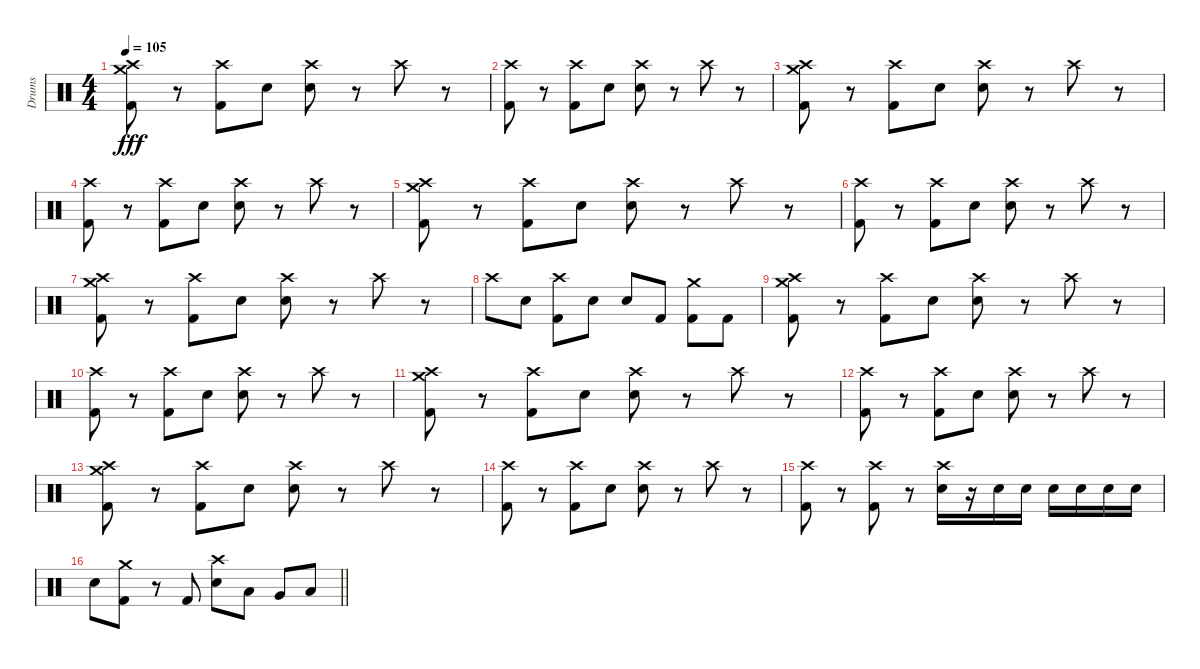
\track ("Drums" "Drums") {instrument percussion}
\staff {score}
\articulation defaults
\ts (4 4)
\section ("" "")
\tempo 105
\clef neutral
\ks c
("Crash medium (hit)" "Crash high (hit)" "Kick (hit) 2").8{dy fff} r.8 ("Crash high (hit)" "Kick (hit) 2").8 "Electric Snare (hit)".8 ("Crash high (hit)" "Electric Snare (hit)").8 r.8 "Crash high (hit)".8 r.8 |
("Crash high (hit)" "Kick (hit) 2").8 r.8 ("Crash high (hit)" "Kick (hit) 2").8 "Electric Snare (hit)".8 ("Crash high (hit)" "Electric Snare (hit)").8 r.8 "Crash high (hit)".8 r.8 |
("Crash medium (hit)" "Crash high (hit)" "Kick (hit) 2").8 r.8 ("Crash high (hit)" "Kick (hit) 2").8 "Electric Snare (hit)".8 ("Crash high (hit)" "Electric Snare (hit)").8 r.8 "Crash high (hit)".8 r.8 |
("Crash high (hit)" "Kick (hit) 2").8 r.8 ("Crash high (hit)" "Kick (hit) 2").8 "Electric Snare (hit)".8 ("Crash high (hit)" "Electric Snare (hit)").8 r.8 "Crash high (hit)".8 r.8 |
("Crash medium (hit)" "Crash high (hit)" "Kick (hit) 2").8 r.8 ("Crash high (hit)" "Kick (hit) 2").8 "Electric Snare (hit)".8 ("Crash high (hit)" "Electric Snare (hit)").8 r.8 "Crash high (hit)".8 r.8 |
("Crash high (hit)" "Kick (hit) 2").8 r.8 ("Crash high (hit)" "Kick (hit) 2").8 "Electric Snare (hit)".8 ("Crash high (hit)" "Electric Snare (hit)").8 r.8 "Crash high (hit)".8 r.8 |
("Crash medium (hit)" "Crash high (hit)" "Kick (hit) 2").8 r.8 ("Crash high (hit)" "Kick (hit) 2").8 "Electric Snare (hit)".8 ("Crash high (hit)" "Electric Snare (hit)").8 r.8 "Crash high (hit)".8 r.8 |
"Crash high (hit)".8 "Electric Snare (hit)".8 ("Crash high (hit)" "Kick (hit) 2").8 "Electric Snare (hit)".8 "Electric Snare (hit)".8 "Kick (hit) 2".8 ("Crash medium (hit)" "Kick (hit) 2").8 "Kick (hit) 2".8 |
("Crash medium (hit)" "Crash high (hit)" "Kick (hit) 2").8 r.8 ("Crash high (hit)" "Kick (hit) 2").8 "Electric Snare (hit)".8 ("Crash high (hit)" "Electric Snare (hit)").8 r.8 "Crash high (hit)".8 r.8 |
("Crash high (hit)" "Kick (hit) 2").8 r.8 ("Crash high (hit)" "Kick (hit) 2").8 "Electric Snare (hit)".8 ("Crash high (hit)" "Electric Snare (hit)").8 r.8 "Crash high (hit)".8 r.8 |
("Crash medium (hit)" "Crash high (hit)" "Kick (hit) 2").8 r.8 ("Crash high (hit)" "Kick (hit) 2").8 "Electric Snare (hit)".8 ("Crash high (hit)" "Electric Snare (hit)").8 r.8 "Crash high (hit)".8 r.8 |
("Crash high (hit)" "Kick (hit) 2").8 r.8 ("Crash high (hit)" "Kick (hit) 2").8 "Electric Snare (hit)".8 ("Crash high (hit)" "Electric Snare (hit)").8 r.8 "Crash high (hit)".8 r.8 |
("Crash medium (hit)" "Crash high (hit)" "Kick (hit) 2").8 r.8 ("Crash high (hit)" "Kick (hit) 2").8 "Electric Snare (hit)".8 ("Crash high (hit)" "Electric Snare (hit)").8 r.8 "Crash high (hit)".8 r.8 |
("Crash high (hit)" "Kick (hit) 2").8 r.8 ("Crash high (hit)" "Kick (hit) 2").8 "Electric Snare (hit)".8 ("Crash high (hit)" "Electric Snare (hit)").8 r.8 "Crash high (hit)".8 r.8 |
("Crash high (hit)" "Kick (hit) 2").8 r.8 ("Crash high (hit)" "Kick (hit) 2").8 r.8 ("Crash high (hit)" "Electric Snare (hit)").16 r.16 "Electric Snare (hit)".16 "Electric Snare (hit)".16 "Electric Snare (hit)".16 "Electric Snare (hit)".16 "Electric Snare (hit)".16 "Electric Snare (hit)".16 |
\barLineRight lightlight "Electric Snare (hit)".8
("Crash medium (hit)" "Kick (hit) 2").8 r.8 "Kick (hit) 2".8 ("Crash high (hit)" "Electric Snare (hit)").8 "Low Tom (hit)".8 "Very Low Tom (hit)".8 "Low Floor Tom (hit)".8
